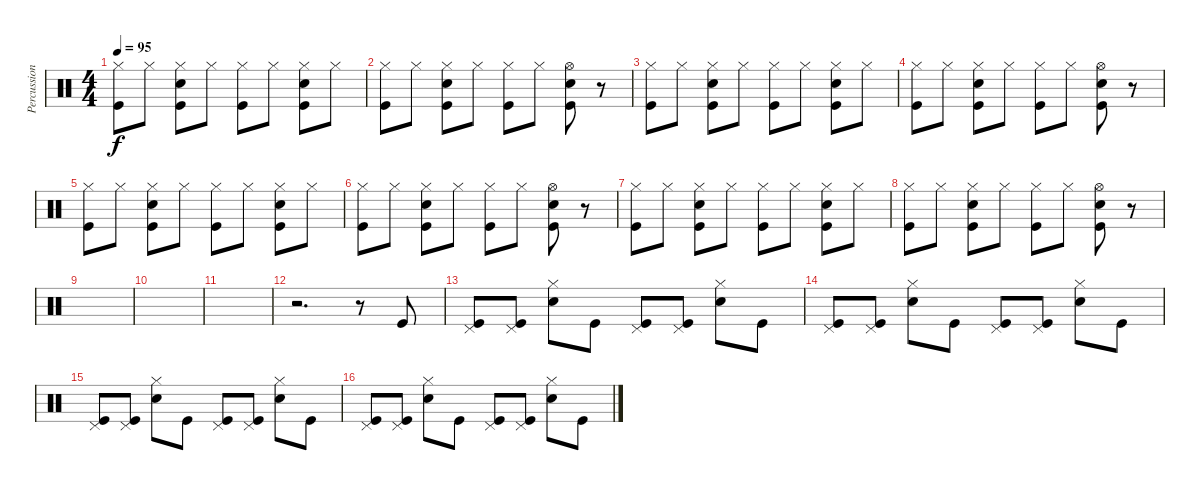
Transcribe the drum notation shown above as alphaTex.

\track ("Percussion" "Percussion") {instrument percussion}
\staff {score}
\articulation defaults
\ts (4 4)
\tempo 95
\clef neutral
\ks c
("Hi-Hat (closed)" "Kick (hit)").8{dy f} "Hi-Hat (closed)".8 ("Hi-Hat (closed)" "Electric Snare (hit)" "Kick (hit)").8 "Hi-Hat (closed)".8 ("Hi-Hat (closed)" "Kick (hit)").8 "Hi-Hat (closed)".8 ("Hi-Hat (closed)" "Electric Snare (hit)" "Kick (hit)").8 "Hi-Hat (closed)".8 |
("Hi-Hat (closed)" "Kick (hit)").8 "Hi-Hat (closed)".8 ("Hi-Hat (closed)" "Electric Snare (hit)" "Kick (hit)").8 "Hi-Hat (closed)".8 ("Hi-Hat (closed)" "Kick (hit)").8 "Hi-Hat (closed)".8 ("Hi-Hat (open)" "Electric Snare (hit)" "Kick (hit)").8 r.8 |
("Hi-Hat (closed)" "Kick (hit)").8 "Hi-Hat (closed)".8 ("Hi-Hat (closed)" "Electric Snare (hit)" "Kick (hit)").8 "Hi-Hat (closed)".8 ("Hi-Hat (closed)" "Kick (hit)").8 "Hi-Hat (closed)".8 ("Hi-Hat (closed)" "Electric Snare (hit)" "Kick (hit)").8 "Hi-Hat (closed)".8 |
("Hi-Hat (closed)" "Kick (hit)").8 "Hi-Hat (closed)".8 ("Hi-Hat (closed)" "Electric Snare (hit)" "Kick (hit)").8 "Hi-Hat (closed)".8 ("Hi-Hat (closed)" "Kick (hit)").8 "Hi-Hat (closed)".8 ("Hi-Hat (open)" "Electric Snare (hit)" "Kick (hit)").8 r.8 |
("Hi-Hat (closed)" "Kick (hit)").8 "Hi-Hat (closed)".8 ("Hi-Hat (closed)" "Electric Snare (hit)" "Kick (hit)").8 "Hi-Hat (closed)".8 ("Hi-Hat (closed)" "Kick (hit)").8 "Hi-Hat (closed)".8 ("Hi-Hat (closed)" "Electric Snare (hit)" "Kick (hit)").8 "Hi-Hat (closed)".8 |
("Hi-Hat (closed)" "Kick (hit)").8 "Hi-Hat (closed)".8 ("Hi-Hat (closed)" "Electric Snare (hit)" "Kick (hit)").8 "Hi-Hat (closed)".8 ("Hi-Hat (closed)" "Kick (hit)").8 "Hi-Hat (closed)".8 ("Hi-Hat (open)" "Electric Snare (hit)" "Kick (hit)").8 r.8 |
("Hi-Hat (closed)" "Kick (hit)").8 "Hi-Hat (closed)".8 ("Hi-Hat (closed)" "Electric Snare (hit)" "Kick (hit)").8 "Hi-Hat (closed)".8 ("Hi-Hat (closed)" "Kick (hit)").8 "Hi-Hat (closed)".8 ("Hi-Hat (closed)" "Electric Snare (hit)" "Kick (hit)").8 "Hi-Hat (closed)".8 |
("Hi-Hat (closed)" "Kick (hit)").8 "Hi-Hat (closed)".8 ("Hi-Hat (closed)" "Electric Snare (hit)" "Kick (hit)").8 "Hi-Hat (closed)".8 ("Hi-Hat (closed)" "Kick (hit)").8 "Hi-Hat (closed)".8 ("Hi-Hat (open)" "Electric Snare (hit)" "Kick (hit)").8 r.8 |
|
|
|
r.2{d} r.8 "Kick (hit)".8 |
("Pedal Hi-Hat (hit)" "Kick (hit)").8 ("Pedal Hi-Hat (hit)" "Kick (hit)").8 ("Hi-Hat (closed)" "Snare (hit) 2").8 "Kick (hit)".8 ("Pedal Hi-Hat (hit)" "Kick (hit)").8 ("Pedal Hi-Hat (hit)" "Kick (hit)").8 ("Hi-Hat (closed)" "Snare (hit) 2").8 "Kick (hit)".8 |
("Pedal Hi-Hat (hit)" "Kick (hit)").8 ("Pedal Hi-Hat (hit)" "Kick (hit)").8 ("Hi-Hat (closed)" "Snare (hit) 2").8 "Kick (hit)".8 ("Pedal Hi-Hat (hit)" "Kick (hit)").8 ("Pedal Hi-Hat (hit)" "Kick (hit)").8 ("Hi-Hat (closed)" "Snare (hit) 2").8 "Kick (hit)".8 |
("Pedal Hi-Hat (hit)" "Kick (hit)").8 ("Pedal Hi-Hat (hit)" "Kick (hit)").8 ("Hi-Hat (closed)" "Snare (hit) 2").8 "Kick (hit)".8 ("Pedal Hi-Hat (hit)" "Kick (hit)").8 ("Pedal Hi-Hat (hit)" "Kick (hit)").8 ("Hi-Hat (closed)" "Snare (hit) 2").8 "Kick (hit)".8 |
("Pedal Hi-Hat (hit)" "Kick (hit)").8 ("Pedal Hi-Hat (hit)" "Kick (hit)").8 ("Hi-Hat (closed)" "Snare (hit) 2").8 "Kick (hit)".8 ("Pedal Hi-Hat (hit)" "Kick (hit)").8 ("Pedal Hi-Hat (hit)" "Kick (hit)").8 ("Hi-Hat (closed)" "Snare (hit) 2").8 "Kick (hit)".8
